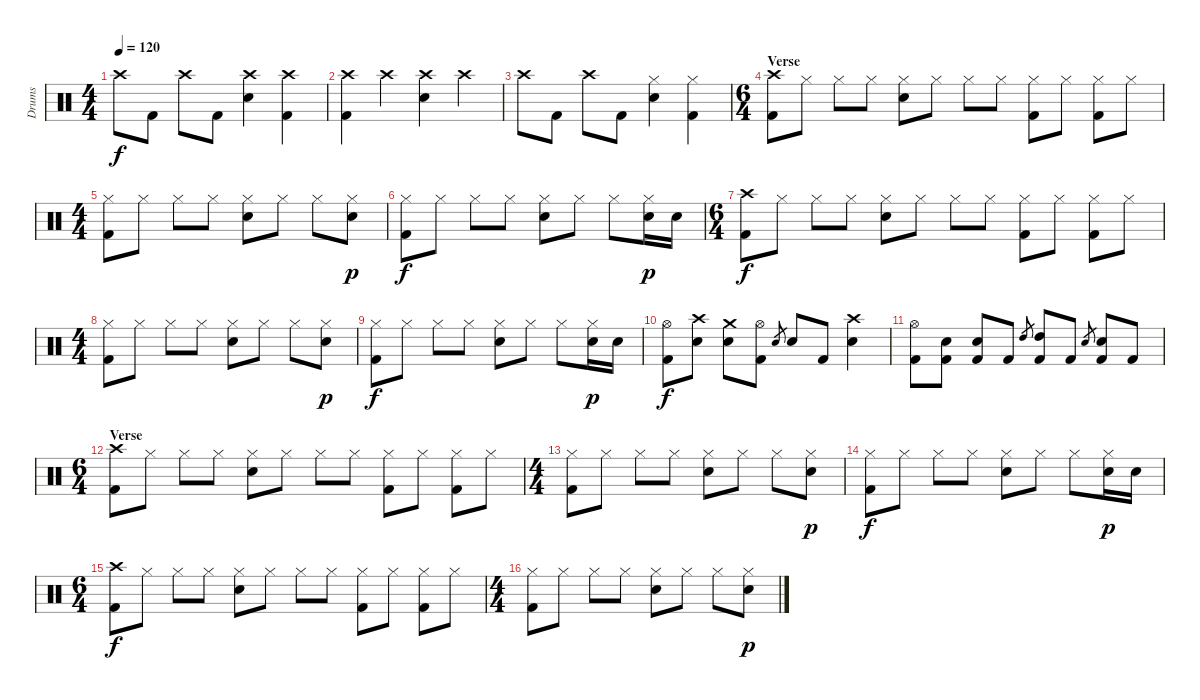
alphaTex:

\track ("Drums" "Drums") {instrument percussion}
\staff {score}
\articulation defaults
\ts (4 4)
\tempo 120
\clef neutral
\ks c "Crash high (hit)".8{dy f} "Kick (hit) 2".8 "Crash high (hit)".8 "Kick (hit) 2".8
("Crash high (hit)" "Electric Snare (hit)").4 ("Crash high (hit)" "Kick (hit) 2").4 |
("Crash high (hit)" "Kick (hit) 2").4 "Crash high (hit)".4 ("Crash high (hit)" "Electric Snare (hit)").4 "Crash high (hit)".4 |
"Crash high (hit)".8 "Kick (hit) 2".8 "Crash high (hit)".8 "Kick (hit) 2".8 ("Hi-Hat (closed)" "Electric Snare (hit)").4 ("Hi-Hat (closed)" "Kick (hit) 2").4 |
\ts (6 4)
\section ("" "Verse")
("Crash high (hit)" "Kick (hit) 2").8 "Hi-Hat (closed)".8 "Hi-Hat (closed)".8 "Hi-Hat (closed)".8 ("Hi-Hat (closed)" "Electric Snare (hit)").8 "Hi-Hat (closed)".8 "Hi-Hat (closed)".8 "Hi-Hat (closed)".8 ("Hi-Hat (closed)" "Kick (hit) 2").8 "Hi-Hat (closed)".8 ("Hi-Hat (closed)" "Kick (hit) 2").8 "Hi-Hat (closed)".8 |
\ts (4 4)
("Hi-Hat (closed)" "Kick (hit) 2").8 "Hi-Hat (closed)".8 "Hi-Hat (closed)".8 "Hi-Hat (closed)".8 ("Hi-Hat (closed)" "Electric Snare (hit)").8 "Hi-Hat (closed)".8 "Hi-Hat (closed)".8 ("Hi-Hat (closed)" "Electric Snare (hit)").8{dy p} |
("Hi-Hat (closed)" "Kick (hit) 2").8{dy f} "Hi-Hat (closed)".8 "Hi-Hat (closed)".8 "Hi-Hat (closed)".8 ("Hi-Hat (closed)" "Electric Snare (hit)").8 "Hi-Hat (closed)".8 "Hi-Hat (closed)".8 ("Hi-Hat (closed)" "Electric Snare (hit)").16{dy p} "Electric Snare (hit)".16 |
\ts (6 4)
("Crash high (hit)" "Kick (hit) 2").8{dy f} "Hi-Hat (closed)".8 "Hi-Hat (closed)".8 "Hi-Hat (closed)".8 ("Hi-Hat (closed)" "Electric Snare (hit)").8 "Hi-Hat (closed)".8 "Hi-Hat (closed)".8 "Hi-Hat (closed)".8 ("Hi-Hat (closed)" "Kick (hit) 2").8 "Hi-Hat (closed)".8 ("Hi-Hat (closed)" "Kick (hit) 2").8 "Hi-Hat (closed)".8 |
\ts (4 4)
("Hi-Hat (closed)" "Kick (hit) 2").8 "Hi-Hat (closed)".8 "Hi-Hat (closed)".8 "Hi-Hat (closed)".8 ("Hi-Hat (closed)" "Electric Snare (hit)").8 "Hi-Hat (closed)".8 "Hi-Hat (closed)".8 ("Hi-Hat (closed)" "Electric Snare (hit)").8{dy p} |
("Hi-Hat (closed)" "Kick (hit) 2").8{dy f} "Hi-Hat (closed)".8 "Hi-Hat (closed)".8 "Hi-Hat (closed)".8 ("Hi-Hat (closed)" "Electric Snare (hit)").8 "Hi-Hat (closed)".8 "Hi-Hat (closed)".8 ("Hi-Hat (closed)" "Electric Snare (hit)").16{dy p} "Electric Snare (hit)".16 |
\section ("" "")
("Hi-Hat (open)" "Kick (hit) 2").8{dy f} ("Crash high (hit)" "Electric Snare (hit)").8 ("Crash medium (hit)" "Electric Snare (hit)").8 ("Hi-Hat (open)" "Kick (hit) 2").8 "Electric Snare (hit)".8{gr} "Electric Snare (hit)".8 "Kick (hit) 2".8 ("Crash high (hit)" "Electric Snare (hit)").4 |
("Hi-Hat (open)" "Kick (hit) 2").8 ("Electric Snare (hit)" "Kick (hit) 2").8 ("Electric Snare (hit)" "Kick (hit) 2").8 "Kick (hit) 2".8 "High Tom (hit)".8{gr} ("High Tom (hit)" "Kick (hit) 2").8 "Kick (hit) 2".8 "Electric Snare (hit)".8{gr} ("Electric Snare (hit)" "Kick (hit) 2").8 "Kick (hit) 2".8 |
\ts (6 4)
\section ("" "Verse")
("Crash high (hit)" "Kick (hit) 2").8 "Hi-Hat (closed)".8 "Hi-Hat (closed)".8 "Hi-Hat (closed)".8 ("Hi-Hat (closed)" "Electric Snare (hit)").8 "Hi-Hat (closed)".8 "Hi-Hat (closed)".8 "Hi-Hat (closed)".8 ("Hi-Hat (closed)" "Kick (hit) 2").8 "Hi-Hat (closed)".8 ("Hi-Hat (closed)" "Kick (hit) 2").8 "Hi-Hat (closed)".8 |
\ts (4 4)
("Hi-Hat (closed)" "Kick (hit) 2").8 "Hi-Hat (closed)".8 "Hi-Hat (closed)".8 "Hi-Hat (closed)".8 ("Hi-Hat (closed)" "Electric Snare (hit)").8 "Hi-Hat (closed)".8 "Hi-Hat (closed)".8 ("Hi-Hat (closed)" "Electric Snare (hit)").8{dy p} |
("Hi-Hat (closed)" "Kick (hit) 2").8{dy f} "Hi-Hat (closed)".8 "Hi-Hat (closed)".8 "Hi-Hat (closed)".8 ("Hi-Hat (closed)" "Electric Snare (hit)").8 "Hi-Hat (closed)".8 "Hi-Hat (closed)".8 ("Hi-Hat (closed)" "Electric Snare (hit)").16{dy p} "Electric Snare (hit)".16 |
\ts (6 4)
("Crash high (hit)" "Kick (hit) 2").8{dy f} "Hi-Hat (closed)".8 "Hi-Hat (closed)".8 "Hi-Hat (closed)".8 ("Hi-Hat (closed)" "Electric Snare (hit)").8 "Hi-Hat (closed)".8 "Hi-Hat (closed)".8 "Hi-Hat (closed)".8 ("Hi-Hat (closed)" "Kick (hit) 2").8 "Hi-Hat (closed)".8 ("Hi-Hat (closed)" "Kick (hit) 2").8 "Hi-Hat (closed)".8 |
\ts (4 4)
("Hi-Hat (closed)" "Kick (hit) 2").8 "Hi-Hat (closed)".8 "Hi-Hat (closed)".8 "Hi-Hat (closed)".8 ("Hi-Hat (closed)" "Electric Snare (hit)").8 "Hi-Hat (closed)".8 "Hi-Hat (closed)".8 ("Hi-Hat (closed)" "Electric Snare (hit)").8{dy p}
